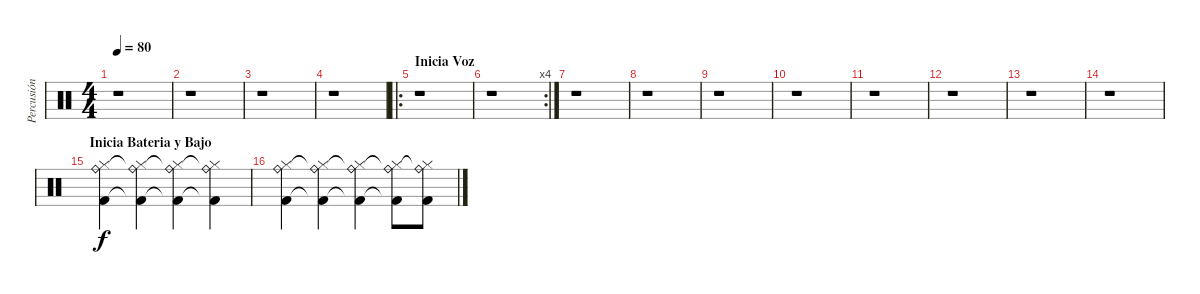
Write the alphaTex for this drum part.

\track ("Percusión (J@vier MoLin@)" "Percusión ") {instrument percussion}
\staff {score}
\articulation defaults
\ts (4 4)
\tempo 80
\clef neutral
\ks c
r.1{dy f} |
r.1 |
r.1 |
r.1 |
\ro
\section ("" "Inicia Voz")
r.1 |
\rc 4
r.1 |
r.1 |
r.1 |
r.1 |
r.1 |
r.1 |
r.1 |
r.1 |
r.1 |
\section ("" "Inicia Bateria y Bajo")
("Hi-Hat (closed)" "Ride (bell)" "Kick (hit) 2").4 ("Hi-Hat (closed)" "Ride (bell)"{t} "Kick (hit) 2"{t}).4 ("Hi-Hat (closed)" "Ride (bell)"{t} "Kick (hit) 2"{t}).4 ("Hi-Hat (closed)" "Ride (bell)"{t} "Kick (hit) 2"{t}).4 |
("Hi-Hat (closed)" "Ride (bell)" "Kick (hit) 2").4 ("Hi-Hat (closed)" "Ride (bell)"{t} "Kick (hit) 2"{t}).4 ("Hi-Hat (closed)" "Ride (bell)"{t} "Kick (hit) 2"{t}).4 ("Hi-Hat (closed)" "Ride (bell)"{t} "Kick (hit) 2"{t}).8 ("Hi-Hat (closed)" "Ride (bell)"{t} "Kick (hit) 2").8
